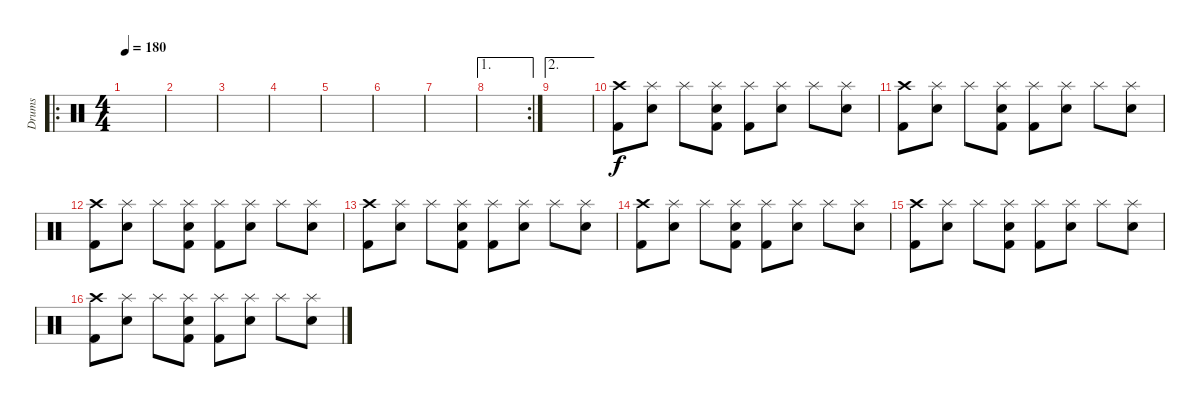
\track ("Drums" "Drums") {instrument percussion}
\staff {score}
\articulation defaults
\ro
\ts (4 4)
\tempo 180
\clef neutral
\ks c
|
|
|
|
|
|
|
\ae 1
\rc 2
|
\ae 2
|
("Crash high (hit)" "Kick (hit) 2").8 ("Splash (hit)" "Snare (hit) 2").8 "Splash (hit)".8 ("Splash (hit)" "Snare (hit) 2" "Kick (hit) 2").8 ("Splash (hit)" "Kick (hit) 2").8 ("Splash (hit)" "Snare (hit) 2").8 "Splash (hit)".8 ("Splash (hit)" "Snare (hit) 2").8 |
("Crash high (hit)" "Kick (hit) 2").8 ("Splash (hit)" "Snare (hit) 2").8 "Splash (hit)".8 ("Splash (hit)" "Snare (hit) 2" "Kick (hit) 2").8 ("Splash (hit)" "Kick (hit) 2").8 ("Splash (hit)" "Snare (hit) 2").8 "Splash (hit)".8 ("Splash (hit)" "Snare (hit) 2").8 |
("Crash high (hit)" "Kick (hit) 2").8 ("Splash (hit)" "Snare (hit) 2").8 "Splash (hit)".8 ("Splash (hit)" "Snare (hit) 2" "Kick (hit) 2").8 ("Splash (hit)" "Kick (hit) 2").8 ("Splash (hit)" "Snare (hit) 2").8 "Splash (hit)".8 ("Splash (hit)" "Snare (hit) 2").8 |
("Crash high (hit)" "Kick (hit) 2").8 ("Splash (hit)" "Snare (hit) 2").8 "Splash (hit)".8 ("Splash (hit)" "Snare (hit) 2" "Kick (hit) 2").8 ("Splash (hit)" "Kick (hit) 2").8 ("Splash (hit)" "Snare (hit) 2").8 "Splash (hit)".8 ("Splash (hit)" "Snare (hit) 2").8 |
("Crash high (hit)" "Kick (hit) 2").8 ("Splash (hit)" "Snare (hit) 2").8 "Splash (hit)".8 ("Splash (hit)" "Snare (hit) 2" "Kick (hit) 2").8 ("Splash (hit)" "Kick (hit) 2").8 ("Splash (hit)" "Snare (hit) 2").8 "Splash (hit)".8 ("Splash (hit)" "Snare (hit) 2").8 |
("Crash high (hit)" "Kick (hit) 2").8 ("Splash (hit)" "Snare (hit) 2").8 "Splash (hit)".8 ("Splash (hit)" "Snare (hit) 2" "Kick (hit) 2").8 ("Splash (hit)" "Kick (hit) 2").8 ("Splash (hit)" "Snare (hit) 2").8 "Splash (hit)".8 ("Splash (hit)" "Snare (hit) 2").8 |
("Crash high (hit)" "Kick (hit) 2").8 ("Splash (hit)" "Snare (hit) 2").8 "Splash (hit)".8 ("Splash (hit)" "Snare (hit) 2" "Kick (hit) 2").8 ("Splash (hit)" "Kick (hit) 2").8 ("Splash (hit)" "Snare (hit) 2").8 "Splash (hit)".8 ("Splash (hit)" "Snare (hit) 2").8
